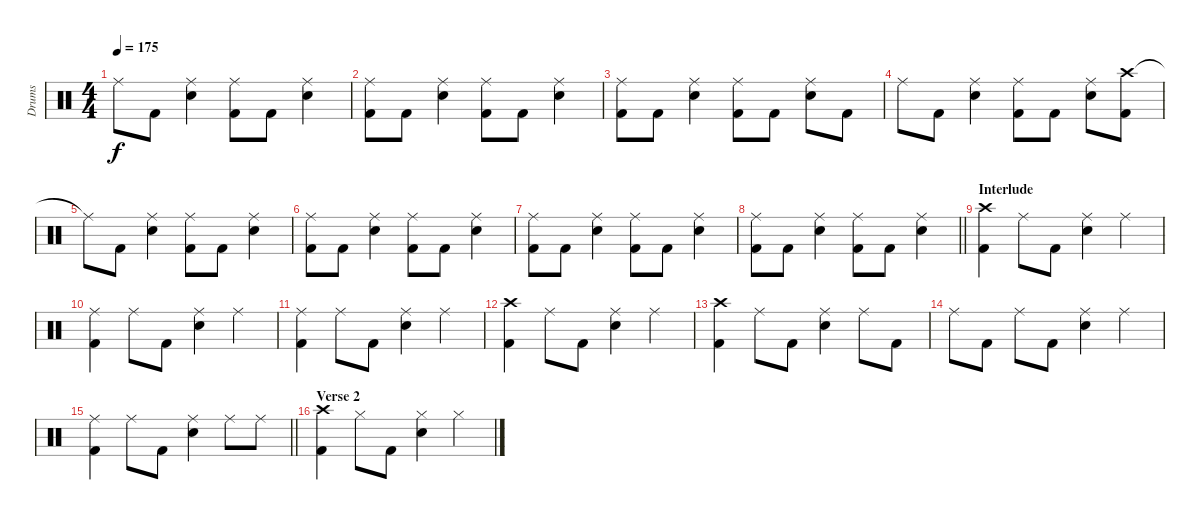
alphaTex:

\track ("Drums" "Drums") {instrument percussion}
\staff {score}
\articulation defaults
\ts (4 4)
\tempo 175
\clef neutral
\ks c "Ride (middle)"{t}.8{dy f} "Kick (hit) 2".8
("Ride (middle)" "Snare (hit) 2").4 ("Ride (middle)" "Kick (hit) 2").8 "Kick (hit) 2".8 ("Ride (middle)" "Snare (hit) 2").4 |
("Ride (middle)" "Kick (hit) 2").8 "Kick (hit) 2".8 ("Ride (middle)" "Snare (hit) 2").4 ("Ride (middle)" "Kick (hit) 2").8 "Kick (hit) 2".8 ("Ride (middle)" "Snare (hit) 2").4 |
("Ride (middle)" "Kick (hit) 2").8 "Kick (hit) 2".8 ("Ride (middle)" "Snare (hit) 2").4 ("Ride (middle)" "Kick (hit) 2").8 "Kick (hit) 2".8 ("Ride (middle)" "Snare (hit) 2").8 "Kick (hit) 2".8 |
"Ride (middle)".8 "Kick (hit) 2".8 ("Ride (middle)" "Snare (hit) 2").4 ("Ride (middle)" "Kick (hit) 2").8 "Kick (hit) 2".8 ("Ride (middle)" "Snare (hit) 2").8 ("Crash high (hit)" "Kick (hit) 2").8 |
"Ride (middle)"{t}.8 "Kick (hit) 2".8 ("Ride (middle)" "Snare (hit) 2").4 ("Ride (middle)" "Kick (hit) 2").8 "Kick (hit) 2".8 ("Ride (middle)" "Snare (hit) 2").4 |
("Ride (middle)" "Kick (hit) 2").8 "Kick (hit) 2".8 ("Ride (middle)" "Snare (hit) 2").4 ("Ride (middle)" "Kick (hit) 2").8 "Kick (hit) 2".8 ("Ride (middle)" "Snare (hit) 2").4 |
("Ride (middle)" "Kick (hit) 2").8 "Kick (hit) 2".8 ("Ride (middle)" "Snare (hit) 2").4 ("Ride (middle)" "Kick (hit) 2").8 "Kick (hit) 2".8 ("Ride (middle)" "Snare (hit) 2").4 |
\barLineRight lightlight
("Ride (middle)" "Kick (hit) 2").8 "Kick (hit) 2".8 ("Ride (middle)" "Snare (hit) 2").4 ("Ride (middle)" "Kick (hit) 2").8 "Kick (hit) 2".8 ("Ride (middle)" "Snare (hit) 2").4 |
\section ("" "Interlude")
("Crash high (hit)" "Kick (hit) 2").4 "Ride (middle)".8 "Kick (hit) 2".8 ("Ride (middle)" "Snare (hit) 2").4 "Ride (middle)".4 |
("Ride (middle)" "Kick (hit) 2").4 "Ride (middle)".8 "Kick (hit) 2".8 ("Ride (middle)" "Snare (hit) 2").4 "Ride (middle)".4 |
("Ride (middle)" "Kick (hit) 2").4 "Ride (middle)".8 "Kick (hit) 2".8 ("Ride (middle)" "Snare (hit) 2").4 "Ride (middle)".4 |
("Crash high (hit)" "Kick (hit) 2").4 "Ride (middle)".8 "Kick (hit) 2".8 ("Ride (middle)" "Snare (hit) 2").4 "Ride (middle)".4 |
("Crash high (hit)" "Kick (hit) 2").4 "Ride (middle)".8 "Kick (hit) 2".8 ("Ride (middle)" "Snare (hit) 2").4 "Ride (middle)".8 "Kick (hit) 2".8 |
"Ride (middle)".8 "Kick (hit) 2".8 "Ride (middle)".8 "Kick (hit) 2".8 ("Ride (middle)" "Snare (hit) 2").4 "Ride (middle)".4 |
\barLineRight lightlight
("Ride (middle)" "Kick (hit) 2").4 "Ride (middle)".8 "Kick (hit) 2".8 ("Ride (middle)" "Snare (hit) 2").4 "Ride (middle)".8 "Ride (middle)".8 |
\section ("" "Verse 2")
("Crash high (hit)" "Kick (hit) 2").4 "Hi-Hat (closed)".8 "Kick (hit) 2".8 ("Hi-Hat (closed)" "Snare (hit) 2").4 "Hi-Hat (closed)".4
